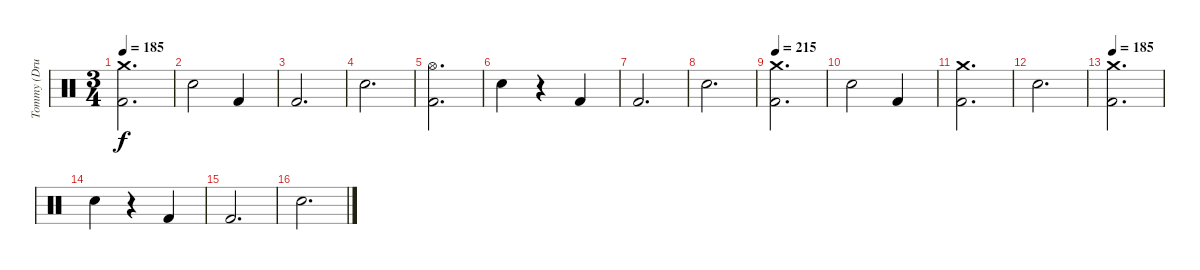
\track ("Tommy (Drums)" "Tommy (Dru") {instrument percussion}
\staff {score}
\articulation defaults
\ts (3 4)
\tempo 185
\clef neutral
\ks c
("Crash medium (hit)" "Kick (hit) 2").2{d dy f} |
"Electric Snare (hit)".2 "Kick (hit) 2".4 |
"Kick (hit) 2".2{d} |
"Electric Snare (hit)".2{d} |
("Hi-Hat (open)" "Kick (hit) 2").2{d} |
"Electric Snare (hit)".4 r.4 "Kick (hit) 2".4 |
"Kick (hit) 2".2{d} |
"Electric Snare (hit)".2{d} |
\tempo 215
("Crash medium (hit)" "Kick (hit) 2").2{d} |
"Electric Snare (hit)".2 "Kick (hit) 2".4 |
("Crash medium (hit)" "Kick (hit) 2").2{d} |
"Electric Snare (hit)".2{d} |
\tempo 185
("Crash medium (hit)" "Kick (hit) 2").2{d} |
"Electric Snare (hit)".4 r.4 "Kick (hit) 2".4 |
"Kick (hit) 2".2{d} |
"Electric Snare (hit)".2{d}
